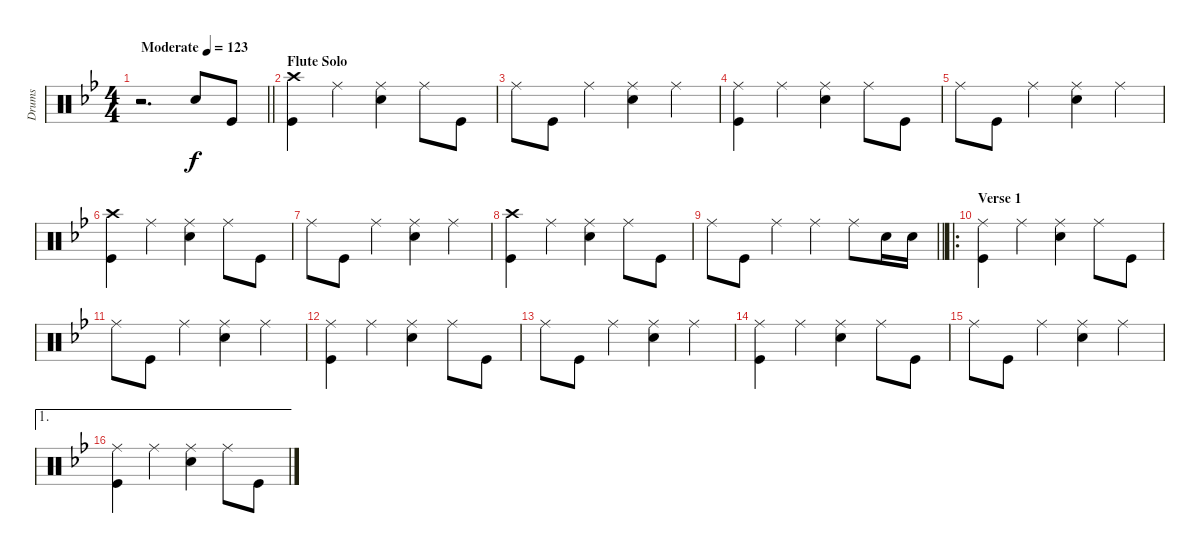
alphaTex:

\track ("Drums" "Drums") {instrument percussion}
\staff {score}
\articulation defaults
\ts (4 4)
\tempo (123 "Moderate")
\clef neutral
\barLineRight lightlight
\ks bb
r.2{d dy f} "Snare (hit) 2".8 "Kick (hit)".8 |
\section ("" "Flute Solo")
("Crash high (hit)" "Kick (hit)").4 "Ride (middle)".4 ("Ride (middle)" "Snare (hit) 2").4 "Ride (middle)".8 "Kick (hit)".8 |
"Ride (middle)".8 "Kick (hit)".8 "Ride (middle)".4 ("Ride (middle)" "Snare (hit) 2").4 "Ride (middle)".4 |
("Ride (middle)" "Kick (hit)").4 "Ride (middle)".4 ("Ride (middle)" "Snare (hit) 2").4 "Ride (middle)".8 "Kick (hit)".8 |
"Ride (middle)".8 "Kick (hit)".8 "Ride (middle)".4 ("Ride (middle)" "Snare (hit) 2").4 "Ride (middle)".4 |
("Crash high (hit)" "Kick (hit)").4 "Ride (middle)".4 ("Ride (middle)" "Snare (hit) 2").4 "Ride (middle)".8 "Kick (hit)".8 |
"Ride (middle)".8 "Kick (hit)".8 "Ride (middle)".4 ("Ride (middle)" "Snare (hit) 2").4 "Ride (middle)".4 |
("Crash high (hit)" "Kick (hit)").4 "Ride (middle)".4 ("Ride (middle)" "Snare (hit) 2").4 "Ride (middle)".8 "Kick (hit)".8 |
\barLineRight lightlight "Ride (middle)".8 "Kick (hit)".8 "Ride (middle)".4 "Ride (middle)".4 "Ride (middle)".8 "Snare (hit) 2".16 "Snare (hit) 2".16
|
\ro
\section ("" "Verse 1")
("Ride (middle)" "Kick (hit)").4 "Ride (middle)".4 ("Ride (middle)" "Snare (hit) 2").4 "Ride (middle)".8 "Kick (hit)".8 |
"Ride (middle)".8 "Kick (hit)".8 "Ride (middle)".4 ("Ride (middle)" "Snare (hit) 2").4 "Ride (middle)".4 |
("Ride (middle)" "Kick (hit)").4 "Ride (middle)".4 ("Ride (middle)" "Snare (hit) 2").4 "Ride (middle)".8 "Kick (hit)".8 |
"Ride (middle)".8 "Kick (hit)".8 "Ride (middle)".4 ("Ride (middle)" "Snare (hit) 2").4 "Ride (middle)".4 |
("Ride (middle)" "Kick (hit)").4 "Ride (middle)".4 ("Ride (middle)" "Snare (hit) 2").4 "Ride (middle)".8 "Kick (hit)".8 |
"Ride (middle)".8 "Kick (hit)".8 "Ride (middle)".4 ("Ride (middle)" "Snare (hit) 2").4 "Ride (middle)".4 |
\ae 1
("Ride (middle)" "Kick (hit)").4 "Ride (middle)".4 ("Ride (middle)" "Snare (hit) 2").4 "Ride (middle)".8 "Kick (hit)".8
